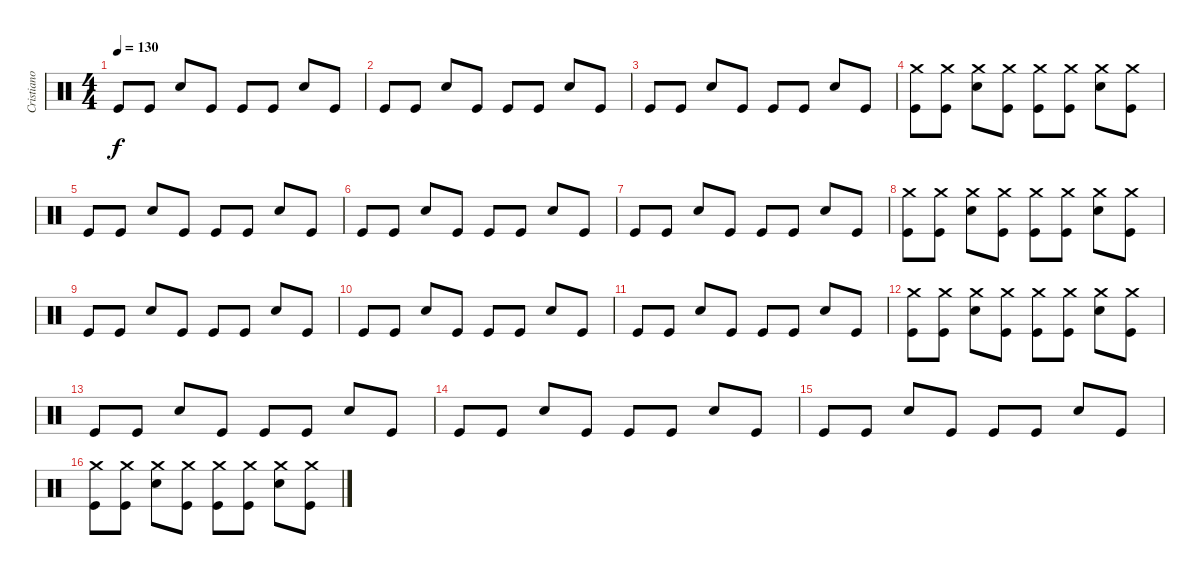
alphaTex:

\track ("Cristiano Mozzati" "Cristiano ") {instrument percussion}
\staff {score}
\articulation defaults
\ts (4 4)
\tempo 130
\clef neutral
\ks c "Kick (hit)".8{dy f} "Kick (hit)".8 "Snare (hit) 2".8 "Kick (hit)".8 "Kick (hit)".8 "Kick (hit)".8 "Snare (hit) 2".8 "Kick (hit)".8
|
"Kick (hit)".8 "Kick (hit)".8 "Snare (hit) 2".8 "Kick (hit)".8 "Kick (hit)".8 "Kick (hit)".8 "Snare (hit) 2".8 "Kick (hit)".8 |
"Kick (hit)".8 "Kick (hit)".8 "Snare (hit) 2".8 "Kick (hit)".8 "Kick (hit)".8 "Kick (hit)".8 "Snare (hit) 2".8 "Kick (hit)".8 |
("Kick (hit)" "Crash medium (hit)").8 ("Kick (hit)" "Crash medium (hit)").8 ("Snare (hit) 2" "Crash medium (hit)").8 ("Kick (hit)" "Crash medium (hit)").8 ("Kick (hit)" "Crash medium (hit)").8 ("Kick (hit)" "Crash medium (hit)").8 ("Snare (hit) 2" "Crash medium (hit)").8 ("Kick (hit)" "Crash medium (hit)").8 |
"Kick (hit)".8 "Kick (hit)".8 "Snare (hit) 2".8 "Kick (hit)".8 "Kick (hit)".8 "Kick (hit)".8 "Snare (hit) 2".8 "Kick (hit)".8 |
"Kick (hit)".8 "Kick (hit)".8 "Snare (hit) 2".8 "Kick (hit)".8 "Kick (hit)".8 "Kick (hit)".8 "Snare (hit) 2".8 "Kick (hit)".8 |
"Kick (hit)".8 "Kick (hit)".8 "Snare (hit) 2".8 "Kick (hit)".8 "Kick (hit)".8 "Kick (hit)".8 "Snare (hit) 2".8 "Kick (hit)".8 |
("Kick (hit)" "Crash medium (hit)").8 ("Kick (hit)" "Crash medium (hit)").8 ("Snare (hit) 2" "Crash medium (hit)").8 ("Kick (hit)" "Crash medium (hit)").8 ("Kick (hit)" "Crash medium (hit)").8 ("Kick (hit)" "Crash medium (hit)").8 ("Snare (hit) 2" "Crash medium (hit)").8 ("Kick (hit)" "Crash medium (hit)").8 |
"Kick (hit)".8 "Kick (hit)".8 "Snare (hit) 2".8 "Kick (hit)".8 "Kick (hit)".8 "Kick (hit)".8 "Snare (hit) 2".8 "Kick (hit)".8 |
"Kick (hit)".8 "Kick (hit)".8 "Snare (hit) 2".8 "Kick (hit)".8 "Kick (hit)".8 "Kick (hit)".8 "Snare (hit) 2".8 "Kick (hit)".8 |
"Kick (hit)".8 "Kick (hit)".8 "Snare (hit) 2".8 "Kick (hit)".8 "Kick (hit)".8 "Kick (hit)".8 "Snare (hit) 2".8 "Kick (hit)".8 |
("Kick (hit)" "Crash medium (hit)").8 ("Kick (hit)" "Crash medium (hit)").8 ("Snare (hit) 2" "Crash medium (hit)").8 ("Kick (hit)" "Crash medium (hit)").8 ("Kick (hit)" "Crash medium (hit)").8 ("Kick (hit)" "Crash medium (hit)").8 ("Snare (hit) 2" "Crash medium (hit)").8 ("Kick (hit)" "Crash medium (hit)").8 |
"Kick (hit)".8 "Kick (hit)".8 "Snare (hit) 2".8 "Kick (hit)".8 "Kick (hit)".8 "Kick (hit)".8 "Snare (hit) 2".8 "Kick (hit)".8 |
"Kick (hit)".8 "Kick (hit)".8 "Snare (hit) 2".8 "Kick (hit)".8 "Kick (hit)".8 "Kick (hit)".8 "Snare (hit) 2".8 "Kick (hit)".8 |
"Kick (hit)".8 "Kick (hit)".8 "Snare (hit) 2".8 "Kick (hit)".8 "Kick (hit)".8 "Kick (hit)".8 "Snare (hit) 2".8 "Kick (hit)".8 |
("Kick (hit)" "Crash medium (hit)").8 ("Kick (hit)" "Crash medium (hit)").8 ("Snare (hit) 2" "Crash medium (hit)").8 ("Kick (hit)" "Crash medium (hit)").8 ("Kick (hit)" "Crash medium (hit)").8 ("Kick (hit)" "Crash medium (hit)").8 ("Snare (hit) 2" "Crash medium (hit)").8 ("Kick (hit)" "Crash medium (hit)").8
